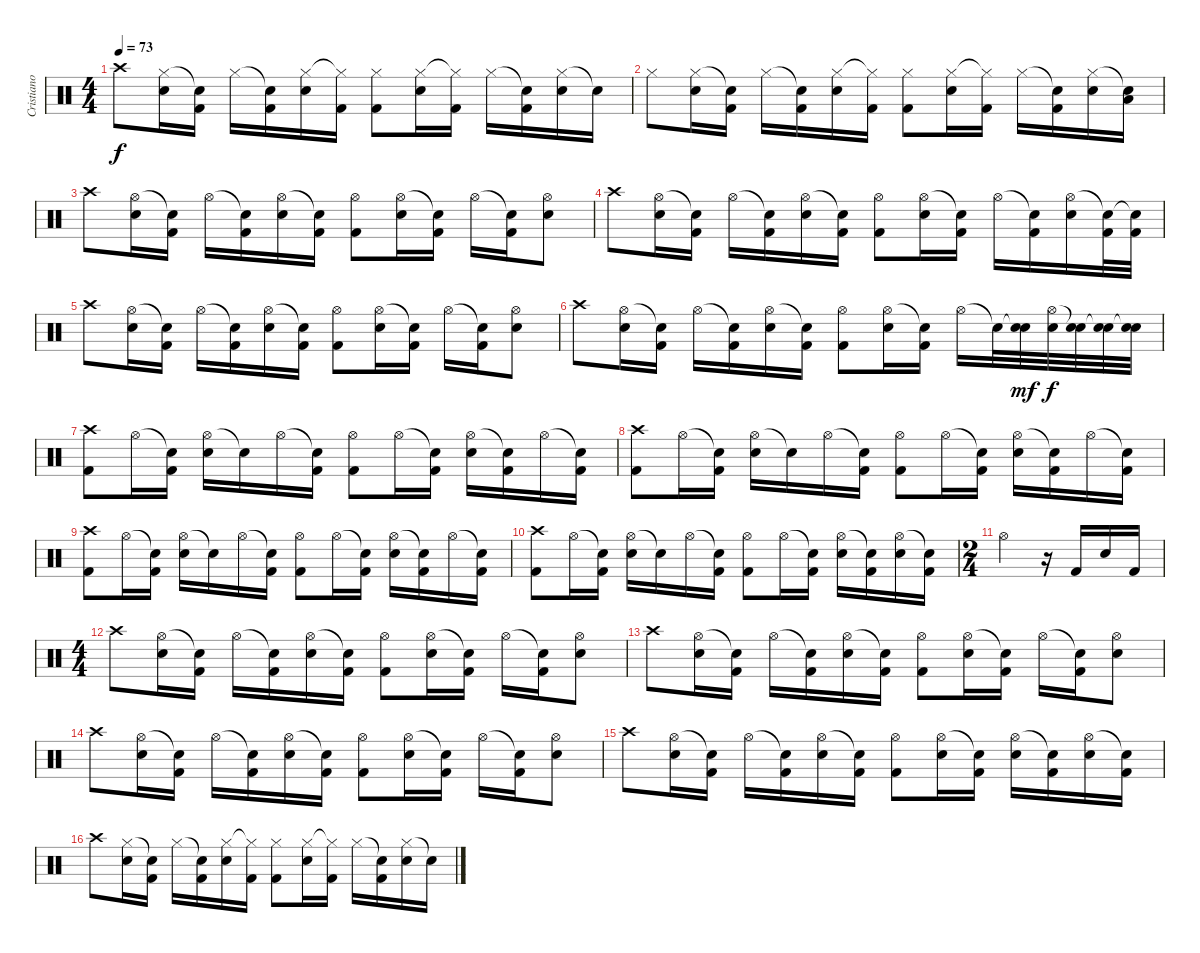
\track ("Cristiano Mozzati" "Cristiano ") {instrument percussion}
\staff {score}
\articulation defaults
\ts (4 4)
\tempo 73
\clef neutral
\ks c "Crash high (hit)".8{dy f}
("Hi-Hat (closed)" "Electric Snare (hit)").16 ("Snare (hit)"{t} "Kick (hit) 2").16 "Hi-Hat (closed)".16 ("Snare (hit)"{t} "Kick (hit) 2").16 ("Hi-Hat (closed)" "Electric Snare (hit)").16 ("Hi-Hat (closed)"{t} "Kick (hit) 2").16 ("Hi-Hat (closed)" "Kick (hit) 2").8 ("Hi-Hat (closed)" "Electric Snare (hit)").16 ("Hi-Hat (closed)"{t} "Kick (hit) 2").16 "Hi-Hat (closed)".16 ("Snare (hit)"{t} "Kick (hit) 2").16 ("Hi-Hat (closed)" "Electric Snare (hit)").16 "Snare (hit)"{t}.16 |
"Hi-Hat (closed)".8 ("Hi-Hat (closed)" "Electric Snare (hit)").16 ("Snare (hit)"{t} "Kick (hit) 2").16 "Hi-Hat (closed)".16 ("Snare (hit)"{t} "Kick (hit) 2").16 ("Hi-Hat (closed)" "Electric Snare (hit)").16 ("Hi-Hat (closed)"{t} "Kick (hit) 2").16 ("Hi-Hat (closed)" "Kick (hit) 2").8 ("Hi-Hat (closed)" "Electric Snare (hit)").16 ("Hi-Hat (closed)"{t} "Kick (hit) 2").16 "Hi-Hat (closed)".16 ("Snare (hit)"{t} "Kick (hit) 2").16 ("Hi-Hat (closed)" "Electric Snare (hit)").16 ("Snare (hit)"{t} "Low Tom (hit)").16 |
"Crash high (hit)".8 ("Hi-Hat (open)" "Electric Snare (hit)").16 ("Snare (hit)"{t} "Kick (hit) 2").16 "Hi-Hat (open)".16 ("Snare (hit)"{t} "Kick (hit) 2").16 ("Hi-Hat (open)" "Electric Snare (hit)").16 ("Snare (hit)"{t} "Kick (hit) 2").16 ("Hi-Hat (open)" "Kick (hit) 2").8 ("Hi-Hat (open)" "Electric Snare (hit)").16 ("Snare (hit)"{t} "Kick (hit) 2").16 "Hi-Hat (open)".16 ("Snare (hit)"{t} "Kick (hit) 2").16 ("Hi-Hat (open)" "Electric Snare (hit)").8 |
"Crash high (hit)".8 ("Hi-Hat (open)" "Electric Snare (hit)").16 ("Snare (hit)"{t} "Kick (hit) 2").16 "Hi-Hat (open)".16 ("Snare (hit)"{t} "Kick (hit) 2").16 ("Hi-Hat (open)" "Electric Snare (hit)").16 ("Snare (hit)"{t} "Kick (hit) 2").16 ("Hi-Hat (open)" "Kick (hit) 2").8 ("Hi-Hat (open)" "Electric Snare (hit)").16 ("Snare (hit)"{t} "Kick (hit) 2").16 "Hi-Hat (open)".16 ("Snare (hit)"{t} "Kick (hit) 2").16 ("Hi-Hat (open)" "Electric Snare (hit)").16 ("Snare (hit)"{t} "Kick (hit) 2").32 ("Snare (hit)"{t} "Kick (hit) 2").32 |
"Crash high (hit)".8 ("Hi-Hat (open)" "Electric Snare (hit)").16 ("Snare (hit)"{t} "Kick (hit) 2").16 "Hi-Hat (open)".16 ("Snare (hit)"{t} "Kick (hit) 2").16 ("Hi-Hat (open)" "Electric Snare (hit)").16 ("Snare (hit)"{t} "Kick (hit) 2").16 ("Hi-Hat (open)" "Kick (hit) 2").8 ("Hi-Hat (open)" "Electric Snare (hit)").16 ("Snare (hit)"{t} "Kick (hit) 2").16 "Hi-Hat (open)".16 ("Snare (hit)"{t} "Kick (hit) 2").16 ("Hi-Hat (open)" "Electric Snare (hit)").8 |
"Crash high (hit)".8 ("Hi-Hat (open)" "Electric Snare (hit)").16 ("Snare (hit)"{t} "Kick (hit) 2").16 "Hi-Hat (open)".16 ("Snare (hit)"{t} "Kick (hit) 2").16 ("Hi-Hat (open)" "Electric Snare (hit)").16 ("Snare (hit)"{t} "Kick (hit) 2").16 ("Hi-Hat (open)" "Kick (hit) 2").8 ("Hi-Hat (open)" "Electric Snare (hit)").16 ("Snare (hit)"{t} "Kick (hit) 2").16 "Hi-Hat (open)".16 "Snare (hit)"{t}.32 ("Snare (hit)"{t} "Electric Snare (hit)").32{dy mf} ("Hi-Hat (open)" "Electric Snare (hit)").32{dy f} ("Snare (hit)"{t} "Electric Snare (hit)").32 ("Snare (hit)"{t} "Electric Snare (hit)").32 ("Snare (hit)"{t} "Electric Snare (hit)").32 |
("Crash high (hit)" "Kick (hit) 2").8 "Hi-Hat (open)".16 ("Snare (hit)"{t} "Kick (hit) 2").16 ("Hi-Hat (open)" "Electric Snare (hit)").16 "Snare (hit)"{t}.16 "Hi-Hat (open)".16 ("Snare (hit)"{t} "Kick (hit) 2").16 ("Hi-Hat (open)" "Kick (hit) 2").8 "Hi-Hat (open)".16 ("Snare (hit)"{t} "Kick (hit) 2").16 ("Hi-Hat (open)" "Electric Snare (hit)").16 ("Snare (hit)"{t} "Kick (hit) 2").16 "Hi-Hat (open)".16 ("Snare (hit)"{t} "Kick (hit) 2").16 |
("Crash high (hit)" "Kick (hit) 2").8 "Hi-Hat (open)".16 ("Snare (hit)"{t} "Kick (hit) 2").16 ("Hi-Hat (open)" "Electric Snare (hit)").16 "Snare (hit)"{t}.16 "Hi-Hat (open)".16 ("Snare (hit)"{t} "Kick (hit) 2").16 ("Hi-Hat (open)" "Kick (hit) 2").8 "Hi-Hat (open)".16 ("Snare (hit)"{t} "Kick (hit) 2").16 ("Hi-Hat (open)" "Electric Snare (hit)").16 ("Snare (hit)"{t} "Kick (hit) 2").16 "Hi-Hat (open)".16 ("Snare (hit)"{t} "Kick (hit) 2").16 |
("Crash high (hit)" "Kick (hit) 2").8 "Hi-Hat (open)".16 ("Snare (hit)"{t} "Kick (hit) 2").16 ("Hi-Hat (open)" "Electric Snare (hit)").16 "Snare (hit)"{t}.16 "Hi-Hat (open)".16 ("Snare (hit)"{t} "Kick (hit) 2").16 ("Hi-Hat (open)" "Kick (hit) 2").8 "Hi-Hat (open)".16 ("Snare (hit)"{t} "Kick (hit) 2").16 ("Hi-Hat (open)" "Electric Snare (hit)").16 ("Snare (hit)"{t} "Kick (hit) 2").16 "Hi-Hat (open)".16 ("Snare (hit)"{t} "Kick (hit) 2").16 |
("Crash high (hit)" "Kick (hit) 2").8 "Hi-Hat (open)".16 ("Snare (hit)"{t} "Kick (hit) 2").16 ("Hi-Hat (open)" "Electric Snare (hit)").16 "Snare (hit)"{t}.16 "Hi-Hat (open)".16 ("Snare (hit)"{t} "Kick (hit) 2").16 ("Hi-Hat (open)" "Kick (hit) 2").8 "Hi-Hat (open)".16 ("Snare (hit)"{t} "Kick (hit) 2").16 ("Hi-Hat (open)" "Electric Snare (hit)").16 ("Snare (hit)"{t} "Kick (hit) 2").16 ("Hi-Hat (open)" "Electric Snare (hit)").16 ("Snare (hit)"{t} "Kick (hit) 2").16 |
\ts (2 4)
"Hi-Hat (open)".4 r.16 "Kick (hit) 2".16 "Electric Snare (hit)".16 "Kick (hit) 2".16 |
\ts (4 4)
"Crash high (hit)".8 ("Hi-Hat (open)" "Electric Snare (hit)").16 ("Snare (hit)"{t} "Kick (hit) 2").16 "Hi-Hat (open)".16 ("Snare (hit)"{t} "Kick (hit) 2").16 ("Hi-Hat (open)" "Electric Snare (hit)").16 ("Snare (hit)"{t} "Kick (hit) 2").16 ("Hi-Hat (open)" "Kick (hit) 2").8 ("Hi-Hat (open)" "Electric Snare (hit)").16 ("Snare (hit)"{t} "Kick (hit) 2").16 "Hi-Hat (open)".16 ("Snare (hit)"{t} "Kick (hit) 2").16 ("Hi-Hat (open)" "Electric Snare (hit)").8 |
"Crash high (hit)".8 ("Hi-Hat (open)" "Electric Snare (hit)").16 ("Snare (hit)"{t} "Kick (hit) 2").16 "Hi-Hat (open)".16 ("Snare (hit)"{t} "Kick (hit) 2").16 ("Hi-Hat (open)" "Electric Snare (hit)").16 ("Snare (hit)"{t} "Kick (hit) 2").16 ("Hi-Hat (open)" "Kick (hit) 2").8 ("Hi-Hat (open)" "Electric Snare (hit)").16 ("Snare (hit)"{t} "Kick (hit) 2").16 "Hi-Hat (open)".16 ("Snare (hit)"{t} "Kick (hit) 2").16 ("Hi-Hat (open)" "Electric Snare (hit)").8 |
"Crash high (hit)".8 ("Hi-Hat (open)" "Electric Snare (hit)").16 ("Snare (hit)"{t} "Kick (hit) 2").16 "Hi-Hat (open)".16 ("Snare (hit)"{t} "Kick (hit) 2").16 ("Hi-Hat (open)" "Electric Snare (hit)").16 ("Snare (hit)"{t} "Kick (hit) 2").16 ("Hi-Hat (open)" "Kick (hit) 2").8 ("Hi-Hat (open)" "Electric Snare (hit)").16 ("Snare (hit)"{t} "Kick (hit) 2").16 "Hi-Hat (open)".16 ("Snare (hit)"{t} "Kick (hit) 2").16 ("Hi-Hat (open)" "Electric Snare (hit)").8 |
"Crash high (hit)".8 ("Hi-Hat (open)" "Electric Snare (hit)").16 ("Snare (hit)"{t} "Kick (hit) 2").16 "Hi-Hat (open)".16 ("Snare (hit)"{t} "Kick (hit) 2").16 ("Hi-Hat (open)" "Electric Snare (hit)").16 ("Snare (hit)"{t} "Kick (hit) 2").16 ("Hi-Hat (open)" "Kick (hit) 2").8 ("Hi-Hat (open)" "Electric Snare (hit)").16 ("Snare (hit)"{t} "Kick (hit) 2").16 ("Hi-Hat (open)" "Electric Snare (hit)").16 ("Snare (hit)"{t} "Kick (hit) 2").16 ("Hi-Hat (open)" "Electric Snare (hit)").16 ("Snare (hit)"{t} "Kick (hit) 2").16 |
"Crash high (hit)".8 ("Hi-Hat (closed)" "Electric Snare (hit)").16 ("Snare (hit)"{t} "Kick (hit) 2").16 "Hi-Hat (closed)".16 ("Snare (hit)"{t} "Kick (hit) 2").16 ("Hi-Hat (closed)" "Electric Snare (hit)").16 ("Hi-Hat (closed)"{t} "Kick (hit) 2").16 ("Hi-Hat (closed)" "Kick (hit) 2").8 ("Hi-Hat (closed)" "Electric Snare (hit)").16 ("Hi-Hat (closed)"{t} "Kick (hit) 2").16 "Hi-Hat (closed)".16 ("Snare (hit)"{t} "Kick (hit) 2").16 ("Hi-Hat (closed)" "Electric Snare (hit)").16 "Snare (hit)"{t}.16
